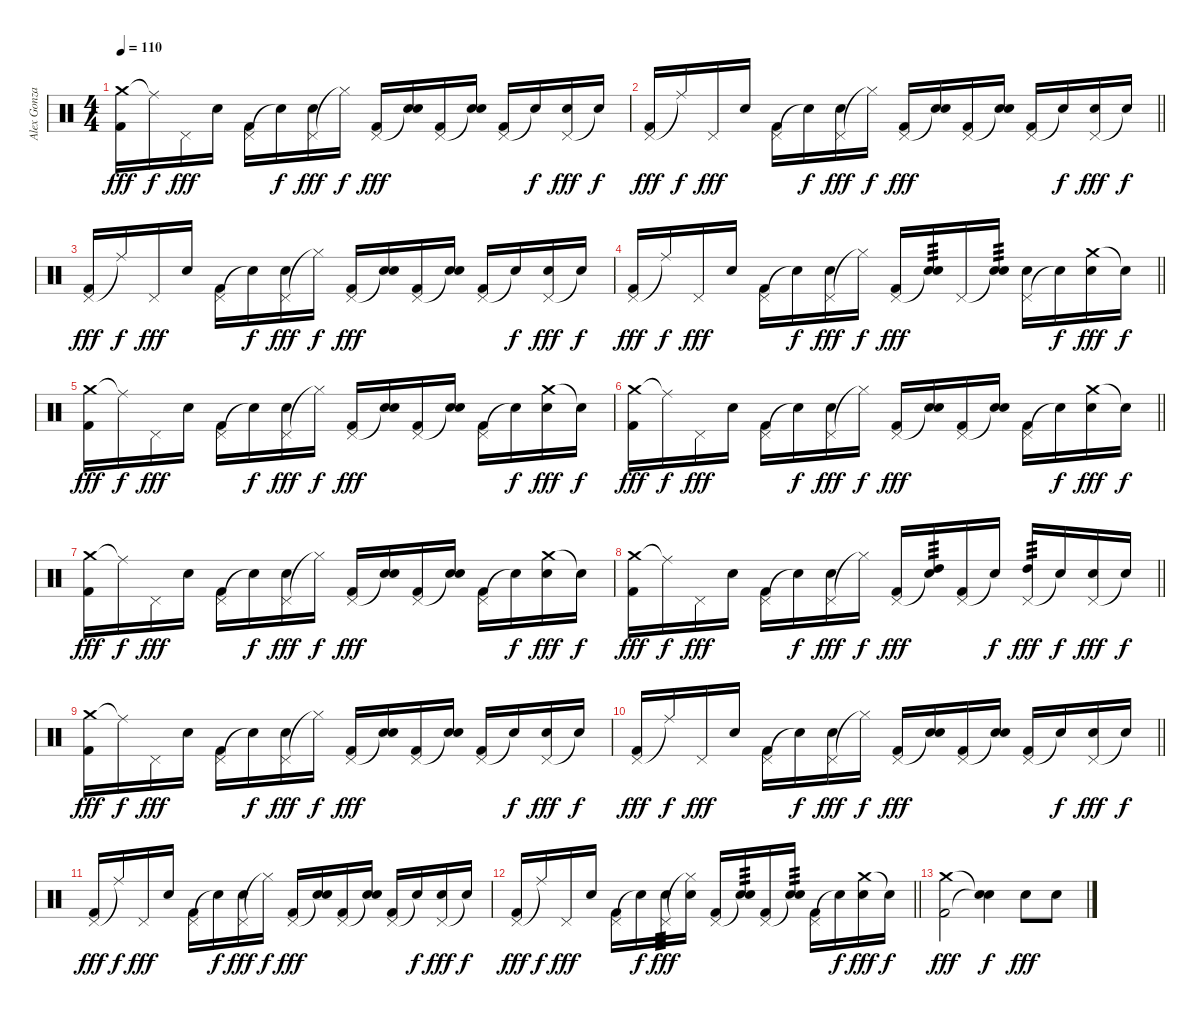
\track ("Alex Gonzalez" "Alex Gonza") {instrument percussion}
\staff {score}
\articulation defaults
\ts (4 4)
\tempo 110
\clef neutral
\ks c
("Crash medium (hit)" "Kick (hit) 2").16{dy fff} "Ride (middle)"{t}.16{dy f} "Pedal Hi-Hat (hit)".16{dy fff} "Electric Snare (hit)".16 ("Pedal Hi-Hat (hit)" "Kick (hit) 2").16 "Snare (hit)"{t}.16{dy f} ("Pedal Hi-Hat (hit)" "Electric Snare (hit)").16{dy fff} "Hi-Hat (closed)"{t}.16{dy f} ("Pedal Hi-Hat (hit)" "Kick (hit) 2").16{dy fff} ("Snare (hit)"{t} "Electric Snare (hit)").16 ("Pedal Hi-Hat (hit)" "Kick (hit) 2").16 ("Snare (hit)"{t} "Electric Snare (hit)").16 ("Pedal Hi-Hat (hit)" "Kick (hit) 2").16 "Snare (hit)"{t}.16{dy f} ("Pedal Hi-Hat (hit)" "Electric Snare (hit)").16{dy fff} "Snare (hit)"{t}.16{dy f} |
\barLineRight lightlight
("Pedal Hi-Hat (hit)" "Kick (hit) 2").16{dy fff} "Ride (middle)"{t}.16{dy f} "Pedal Hi-Hat (hit)".16{dy fff} "Electric Snare (hit)".16 ("Pedal Hi-Hat (hit)" "Kick (hit) 2").16 "Snare (hit)"{t}.16{dy f} ("Pedal Hi-Hat (hit)" "Electric Snare (hit)").16{dy fff} "Hi-Hat (closed)"{t}.16{dy f} ("Pedal Hi-Hat (hit)" "Kick (hit) 2").16{dy fff} ("Snare (hit)"{t} "Electric Snare (hit)").16 ("Pedal Hi-Hat (hit)" "Kick (hit) 2").16 ("Snare (hit)"{t} "Electric Snare (hit)").16 ("Pedal Hi-Hat (hit)" "Kick (hit) 2").16 "Snare (hit)"{t}.16{dy f} ("Pedal Hi-Hat (hit)" "Electric Snare (hit)").16{dy fff} "Snare (hit)"{t}.16{dy f} |
("Pedal Hi-Hat (hit)" "Kick (hit) 2").16{dy fff} "Ride (middle)"{t}.16{dy f} "Pedal Hi-Hat (hit)".16{dy fff} "Electric Snare (hit)".16 ("Pedal Hi-Hat (hit)" "Kick (hit) 2").16 "Snare (hit)"{t}.16{dy f} ("Pedal Hi-Hat (hit)" "Electric Snare (hit)").16{dy fff} "Hi-Hat (closed)"{t}.16{dy f} ("Pedal Hi-Hat (hit)" "Kick (hit) 2").16{dy fff} ("Snare (hit)"{t} "Electric Snare (hit)").16 ("Pedal Hi-Hat (hit)" "Kick (hit) 2").16 ("Snare (hit)"{t} "Electric Snare (hit)").16 ("Pedal Hi-Hat (hit)" "Kick (hit) 2").16 "Snare (hit)"{t}.16{dy f} ("Pedal Hi-Hat (hit)" "Electric Snare (hit)").16{dy fff} "Snare (hit)"{t}.16{dy f} |
\barLineRight lightlight
("Pedal Hi-Hat (hit)" "Kick (hit) 2").16{dy fff} "Ride (middle)"{t}.16{dy f} "Pedal Hi-Hat (hit)".16{dy fff} "Electric Snare (hit)".16 ("Pedal Hi-Hat (hit)" "Kick (hit) 2").16 "Snare (hit)"{t}.16{dy f} ("Pedal Hi-Hat (hit)" "Electric Snare (hit)").16{dy fff} "Hi-Hat (closed)"{t}.16{dy f} ("Pedal Hi-Hat (hit)" "Kick (hit) 2").16{dy fff} ("Snare (hit)"{t} "Electric Snare (hit)").16{tp 3} "Pedal Hi-Hat (hit)".16 ("Snare (hit)"{t} "Electric Snare (hit)").16{tp 3} ("Pedal Hi-Hat (hit)" "Electric Snare (hit)").16 "Snare (hit)"{t}.16{dy f} ("Crash medium (hit)" "Electric Snare (hit)").16{dy fff} "Snare (hit)"{t}.16{dy f} |
("Crash medium (hit)" "Kick (hit) 2").16{dy fff} "Ride (middle)"{t}.16{dy f} "Pedal Hi-Hat (hit)".16{dy fff} "Electric Snare (hit)".16 ("Pedal Hi-Hat (hit)" "Kick (hit) 2").16 "Snare (hit)"{t}.16{dy f} ("Pedal Hi-Hat (hit)" "Electric Snare (hit)").16{dy fff} "Hi-Hat (closed)"{t}.16{dy f} ("Pedal Hi-Hat (hit)" "Kick (hit) 2").16{dy fff} ("Snare (hit)"{t} "Electric Snare (hit)").16 ("Pedal Hi-Hat (hit)" "Kick (hit) 2").16 ("Snare (hit)"{t} "Electric Snare (hit)").16 ("Pedal Hi-Hat (hit)" "Kick (hit) 2").16 "Snare (hit)"{t}.16{dy f} ("Crash medium (hit)" "Electric Snare (hit)").16{dy fff} "Snare (hit)"{t}.16{dy f} |
\barLineRight lightlight
("Crash medium (hit)" "Kick (hit) 2").16{dy fff} "Ride (middle)"{t}.16{dy f} "Pedal Hi-Hat (hit)".16{dy fff} "Electric Snare (hit)".16 ("Pedal Hi-Hat (hit)" "Kick (hit) 2").16 "Snare (hit)"{t}.16{dy f} ("Pedal Hi-Hat (hit)" "Electric Snare (hit)").16{dy fff} "Hi-Hat (closed)"{t}.16{dy f} ("Pedal Hi-Hat (hit)" "Kick (hit) 2").16{dy fff} ("Snare (hit)"{t} "Electric Snare (hit)").16 ("Pedal Hi-Hat (hit)" "Kick (hit) 2").16 ("Snare (hit)"{t} "Electric Snare (hit)").16 ("Pedal Hi-Hat (hit)" "Kick (hit) 2").16 "Snare (hit)"{t}.16{dy f} ("Crash medium (hit)" "Electric Snare (hit)").16{dy fff} "Snare (hit)"{t}.16{dy f} |
("Crash medium (hit)" "Kick (hit) 2").16{dy fff} "Ride (middle)"{t}.16{dy f} "Pedal Hi-Hat (hit)".16{dy fff} "Electric Snare (hit)".16 ("Pedal Hi-Hat (hit)" "Kick (hit) 2").16 "Snare (hit)"{t}.16{dy f} ("Pedal Hi-Hat (hit)" "Electric Snare (hit)").16{dy fff} "Hi-Hat (closed)"{t}.16{dy f} ("Pedal Hi-Hat (hit)" "Kick (hit) 2").16{dy fff} ("Snare (hit)"{t} "Electric Snare (hit)").16 ("Pedal Hi-Hat (hit)" "Kick (hit) 2").16 ("Snare (hit)"{t} "Electric Snare (hit)").16 ("Pedal Hi-Hat (hit)" "Kick (hit) 2").16 "Snare (hit)"{t}.16{dy f} ("Crash medium (hit)" "Electric Snare (hit)").16{dy fff} "Snare (hit)"{t}.16{dy f} |
\barLineRight lightlight
("Crash medium (hit)" "Kick (hit) 2").16{dy fff} "Ride (middle)"{t}.16{dy f} "Pedal Hi-Hat (hit)".16{dy fff} "Electric Snare (hit)".16 ("Pedal Hi-Hat (hit)" "Kick (hit) 2").16 "Snare (hit)"{t}.16{dy f} ("Pedal Hi-Hat (hit)" "Electric Snare (hit)").16{dy fff} "Hi-Hat (closed)"{t}.16{dy f} ("Pedal Hi-Hat (hit)" "Kick (hit) 2").16{dy fff} ("Snare (hit)"{t} "High Tom (hit)").16{tp 3} ("Pedal Hi-Hat (hit)" "Kick (hit) 2").16 "Snare (hit)"{t}.16{dy f} ("Pedal Hi-Hat (hit)" "High Tom (hit)").16{tp 3 dy fff} "Snare (hit)"{t}.16{dy f} ("Pedal Hi-Hat (hit)" "Electric Snare (hit)").16{dy fff} "Snare (hit)"{t}.16{dy f} |
("Crash medium (hit)" "Kick (hit) 2").16{dy fff} "Ride (middle)"{t}.16{dy f} "Pedal Hi-Hat (hit)".16{dy fff} "Electric Snare (hit)".16 ("Pedal Hi-Hat (hit)" "Kick (hit) 2").16 "Snare (hit)"{t}.16{dy f} ("Pedal Hi-Hat (hit)" "Electric Snare (hit)").16{dy fff} "Hi-Hat (closed)"{t}.16{dy f} ("Pedal Hi-Hat (hit)" "Kick (hit) 2").16{dy fff} ("Snare (hit)"{t} "Electric Snare (hit)").16 ("Pedal Hi-Hat (hit)" "Kick (hit) 2").16 ("Snare (hit)"{t} "Electric Snare (hit)").16 ("Pedal Hi-Hat (hit)" "Kick (hit) 2").16 "Snare (hit)"{t}.16{dy f} ("Pedal Hi-Hat (hit)" "Electric Snare (hit)").16{dy fff} "Snare (hit)"{t}.16{dy f} |
\barLineRight lightlight
("Pedal Hi-Hat (hit)" "Kick (hit) 2").16{dy fff} "Ride (middle)"{t}.16{dy f} "Pedal Hi-Hat (hit)".16{dy fff} "Electric Snare (hit)".16 ("Pedal Hi-Hat (hit)" "Kick (hit) 2").16 "Snare (hit)"{t}.16{dy f} ("Pedal Hi-Hat (hit)" "Electric Snare (hit)").16{dy fff} "Hi-Hat (closed)"{t}.16{dy f} ("Pedal Hi-Hat (hit)" "Kick (hit) 2").16{dy fff} ("Snare (hit)"{t} "Electric Snare (hit)").16 ("Pedal Hi-Hat (hit)" "Kick (hit) 2").16 ("Snare (hit)"{t} "Electric Snare (hit)").16 ("Pedal Hi-Hat (hit)" "Kick (hit) 2").16 "Snare (hit)"{t}.16{dy f} ("Pedal Hi-Hat (hit)" "Electric Snare (hit)").16{dy fff} "Snare (hit)"{t}.16{dy f} |
("Pedal Hi-Hat (hit)" "Kick (hit) 2").16{dy fff} "Ride (middle)"{t}.16{dy f} "Pedal Hi-Hat (hit)".16{dy fff} "Electric Snare (hit)".16 ("Pedal Hi-Hat (hit)" "Kick (hit) 2").16 "Snare (hit)"{t}.16{dy f} ("Pedal Hi-Hat (hit)" "Electric Snare (hit)").16{dy fff} "Hi-Hat (closed)"{t}.16{dy f} ("Pedal Hi-Hat (hit)" "Kick (hit) 2").16{dy fff} ("Snare (hit)"{t} "Electric Snare (hit)").16 ("Pedal Hi-Hat (hit)" "Kick (hit) 2").16 ("Snare (hit)"{t} "Electric Snare (hit)").16 ("Pedal Hi-Hat (hit)" "Kick (hit) 2").16 "Snare (hit)"{t}.16{dy f} ("Pedal Hi-Hat (hit)" "Electric Snare (hit)").16{dy fff} "Snare (hit)"{t}.16{dy f} |
\barLineRight lightlight
("Pedal Hi-Hat (hit)" "Kick (hit) 2").16{dy fff} "Ride (middle)"{t}.16{dy f} "Pedal Hi-Hat (hit)".16{dy fff} "Electric Snare (hit)".16 ("Pedal Hi-Hat (hit)" "Kick (hit) 2").16 "Snare (hit)"{t}.16{dy f} ("Pedal Hi-Hat (hit)" "Electric Snare (hit)").16{tp 3 dy fff} ("Hi-Hat (closed)"{t} "Electric Snare (hit)").16 ("Pedal Hi-Hat (hit)" "Kick (hit) 2").16 ("Snare (hit)"{t} "Electric Snare (hit)").16{tp 3} ("Pedal Hi-Hat (hit)" "Kick (hit) 2").16 ("Snare (hit)"{t} "Electric Snare (hit)").16{tp 3} ("Pedal Hi-Hat (hit)" "Kick (hit) 2").16 "Snare (hit)"{t}.16{dy f} ("Crash medium (hit)" "Electric Snare (hit)").16{dy fff} "Snare (hit)"{t}.16{dy f} |
("Crash medium (hit)" "Kick (hit) 2").2{dy fff} ("Snare (hit)"{t} "Snare (hit)"{t}).4{dy f} "Electric Snare (hit)".8{dy fff} "Electric Snare (hit)".8
